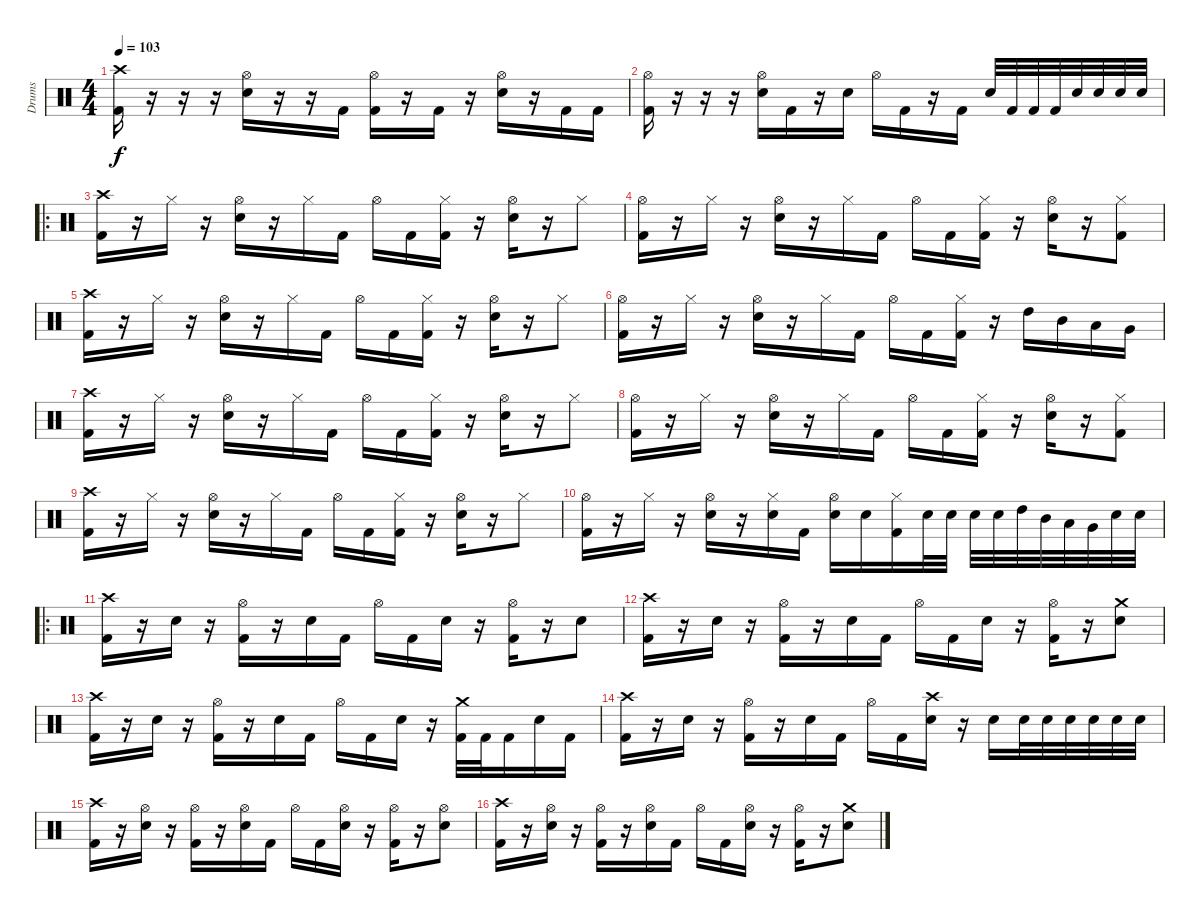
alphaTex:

\track ("Drums" "Drums") {instrument percussion}
\staff {score}
\articulation defaults
\ts (4 4)
\tempo 103
\clef neutral
\ks c
("Crash high (hit)" "Kick (hit) 2").16{dy f} r.16 r.16 r.16 ("Hi-Hat (open)" "Snare (hit) 2").16 r.16 r.16 "Kick (hit) 2".16 ("Hi-Hat (open)" "Kick (hit) 2").16 r.16 "Kick (hit) 2".16 r.16 ("Hi-Hat (open)" "Snare (hit) 2").16 r.16 "Kick (hit) 2".16 "Kick (hit) 2".16 |
("Hi-Hat (open)" "Kick (hit) 2").16 r.16 r.16 r.16 ("Hi-Hat (open)" "Snare (hit) 2").16 "Kick (hit) 2".16 r.16 "Snare (hit) 2".16 "Hi-Hat (open)".16 "Kick (hit) 2".16 r.16 "Kick (hit) 2".16 "Snare (hit) 2".32 "Kick (hit) 2".32 "Kick (hit) 2".32 "Kick (hit) 2".32 "Snare (hit) 2".32 "Snare (hit) 2".32 "Snare (hit) 2".32 "Snare (hit) 2".32 |
\ro
("Crash high (hit)" "Kick (hit) 2").16 r.16 "Hi-Hat (closed)".16 r.16 ("Hi-Hat (open)" "Snare (hit) 2").16 r.16 "Hi-Hat (closed)".16 "Kick (hit) 2".16 "Hi-Hat (open)".16 "Kick (hit) 2".16 ("Hi-Hat (closed)" "Kick (hit) 2").16 r.16 ("Hi-Hat (open)" "Snare (hit) 2").16 r.16 "Hi-Hat (closed)".8 |
("Hi-Hat (open)" "Kick (hit) 2").16 r.16 "Hi-Hat (closed)".16 r.16 ("Hi-Hat (open)" "Snare (hit) 2").16 r.16 "Hi-Hat (closed)".16 "Kick (hit) 2".16 "Hi-Hat (open)".16 "Kick (hit) 2".16 ("Hi-Hat (closed)" "Kick (hit) 2").16 r.16 ("Hi-Hat (open)" "Snare (hit) 2").16 r.16 ("Hi-Hat (closed)" "Kick (hit) 2").8 |
("Crash high (hit)" "Kick (hit) 2").16 r.16 "Hi-Hat (closed)".16 r.16 ("Hi-Hat (open)" "Snare (hit) 2").16 r.16 "Hi-Hat (closed)".16 "Kick (hit) 2".16 "Hi-Hat (open)".16 "Kick (hit) 2".16 ("Hi-Hat (closed)" "Kick (hit) 2").16 r.16 ("Hi-Hat (open)" "Snare (hit) 2").16 r.16 "Hi-Hat (closed)".8 |
("Hi-Hat (open)" "Kick (hit) 2").16 r.16 "Hi-Hat (closed)".16 r.16 ("Hi-Hat (open)" "Snare (hit) 2").16 r.16 "Hi-Hat (closed)".16 "Kick (hit) 2".16 "Hi-Hat (open)".16 "Kick (hit) 2".16 ("Hi-Hat (closed)" "Kick (hit) 2").16 r.16 "High Tom (hit)".16 "Mid Tom (hit)".16 "Low Tom (hit)".16 "Very Low Tom (hit)".16 |
("Crash high (hit)" "Kick (hit) 2").16 r.16 "Hi-Hat (closed)".16 r.16 ("Hi-Hat (open)" "Snare (hit) 2").16 r.16 "Hi-Hat (closed)".16 "Kick (hit) 2".16 "Hi-Hat (open)".16 "Kick (hit) 2".16 ("Hi-Hat (closed)" "Kick (hit) 2").16 r.16 ("Hi-Hat (open)" "Snare (hit) 2").16 r.16 "Hi-Hat (closed)".8 |
("Hi-Hat (open)" "Kick (hit) 2").16 r.16 "Hi-Hat (closed)".16 r.16 ("Hi-Hat (open)" "Snare (hit) 2").16 r.16 "Hi-Hat (closed)".16 "Kick (hit) 2".16 "Hi-Hat (open)".16 "Kick (hit) 2".16 ("Hi-Hat (closed)" "Kick (hit) 2").16 r.16 ("Hi-Hat (open)" "Snare (hit) 2").16 r.16 ("Hi-Hat (closed)" "Kick (hit) 2").8 |
("Crash high (hit)" "Kick (hit) 2").16 r.16 "Hi-Hat (closed)".16 r.16 ("Hi-Hat (open)" "Snare (hit) 2").16 r.16 "Hi-Hat (closed)".16 "Kick (hit) 2".16 "Hi-Hat (open)".16 "Kick (hit) 2".16 ("Hi-Hat (closed)" "Kick (hit) 2").16 r.16 ("Hi-Hat (open)" "Snare (hit) 2").16 r.16 "Hi-Hat (closed)".8 |
("Hi-Hat (open)" "Kick (hit) 2").16 r.16 "Hi-Hat (closed)".16 r.16 ("Hi-Hat (open)" "Snare (hit) 2").16 r.16 ("Hi-Hat (closed)" "Snare (hit) 2").16 "Kick (hit) 2".16 ("Hi-Hat (open)" "Snare (hit) 2").16 "Snare (hit) 2".16 ("Hi-Hat (closed)" "Kick (hit) 2").16 "Snare (hit) 2".32 "Snare (hit) 2".32 "Snare (hit) 2".32 "Snare (hit) 2".32 "High Tom (hit)".32 "Mid Tom (hit)".32 "Low Tom (hit)".32 "Very Low Tom (hit)".32 "Snare (hit) 2".32 "Snare (hit) 2".32 |
\ro
("Crash high (hit)" "Kick (hit) 2").16 r.16 "Snare (hit) 2".16 r.16 ("Hi-Hat (open)" "Kick (hit) 2").16 r.16 "Snare (hit) 2".16 "Kick (hit) 2".16 "Hi-Hat (open)".16 "Kick (hit) 2".16 "Snare (hit) 2".16 r.16 ("Hi-Hat (open)" "Kick (hit) 2").16 r.16 "Snare (hit) 2".8 |
("Crash high (hit)" "Kick (hit) 2").16 r.16 "Snare (hit) 2".16 r.16 ("Hi-Hat (open)" "Kick (hit) 2").16 r.16 "Snare (hit) 2".16 "Kick (hit) 2".16 "Hi-Hat (open)".16 "Kick (hit) 2".16 "Snare (hit) 2".16 r.16 ("Hi-Hat (open)" "Kick (hit) 2").16 r.16 ("Crash medium (hit)" "Snare (hit) 2").8 |
("Crash high (hit)" "Kick (hit) 2").16 r.16 "Snare (hit) 2".16 r.16 ("Hi-Hat (open)" "Kick (hit) 2").16 r.16 "Snare (hit) 2".16 "Kick (hit) 2".16 "Hi-Hat (open)".16 "Kick (hit) 2".16 "Snare (hit) 2".16 r.16 ("Crash medium (hit)" "Kick (hit) 2").32 "Kick (hit) 2".32 "Kick (hit) 2".16 "Snare (hit) 2".16 "Kick (hit) 2".16 |
("Crash high (hit)" "Kick (hit) 2").16 r.16 "Snare (hit) 2".16 r.16 ("Hi-Hat (open)" "Kick (hit) 2").16 r.16 "Snare (hit) 2".16 "Kick (hit) 2".16 "Hi-Hat (open)".16 "Kick (hit) 2".16 ("Crash high (hit)" "Snare (hit) 2").16 r.16 "Snare (hit) 2".16 "Snare (hit) 2".32 "Snare (hit) 2".32 "Snare (hit) 2".32 "Snare (hit) 2".32 "Snare (hit) 2".32 "Snare (hit) 2".32 |
("Crash high (hit)" "Kick (hit) 2").16 r.16 ("Hi-Hat (open)" "Snare (hit) 2").16 r.16 ("Hi-Hat (open)" "Kick (hit) 2").16 r.16 ("Hi-Hat (open)" "Snare (hit) 2").16 "Kick (hit) 2".16 "Hi-Hat (open)".16 "Kick (hit) 2".16 ("Hi-Hat (open)" "Snare (hit) 2").16 r.16 ("Hi-Hat (open)" "Kick (hit) 2").16 r.16 ("Hi-Hat (open)" "Snare (hit) 2").8 |
("Crash high (hit)" "Kick (hit) 2").16 r.16 ("Hi-Hat (open)" "Snare (hit) 2").16 r.16 ("Hi-Hat (open)" "Kick (hit) 2").16 r.16 ("Hi-Hat (open)" "Snare (hit) 2").16 "Kick (hit) 2".16 "Hi-Hat (open)".16 "Kick (hit) 2".16 ("Hi-Hat (open)" "Snare (hit) 2").16 r.16 ("Hi-Hat (open)" "Kick (hit) 2").16 r.16 ("Crash medium (hit)" "Snare (hit) 2").8
